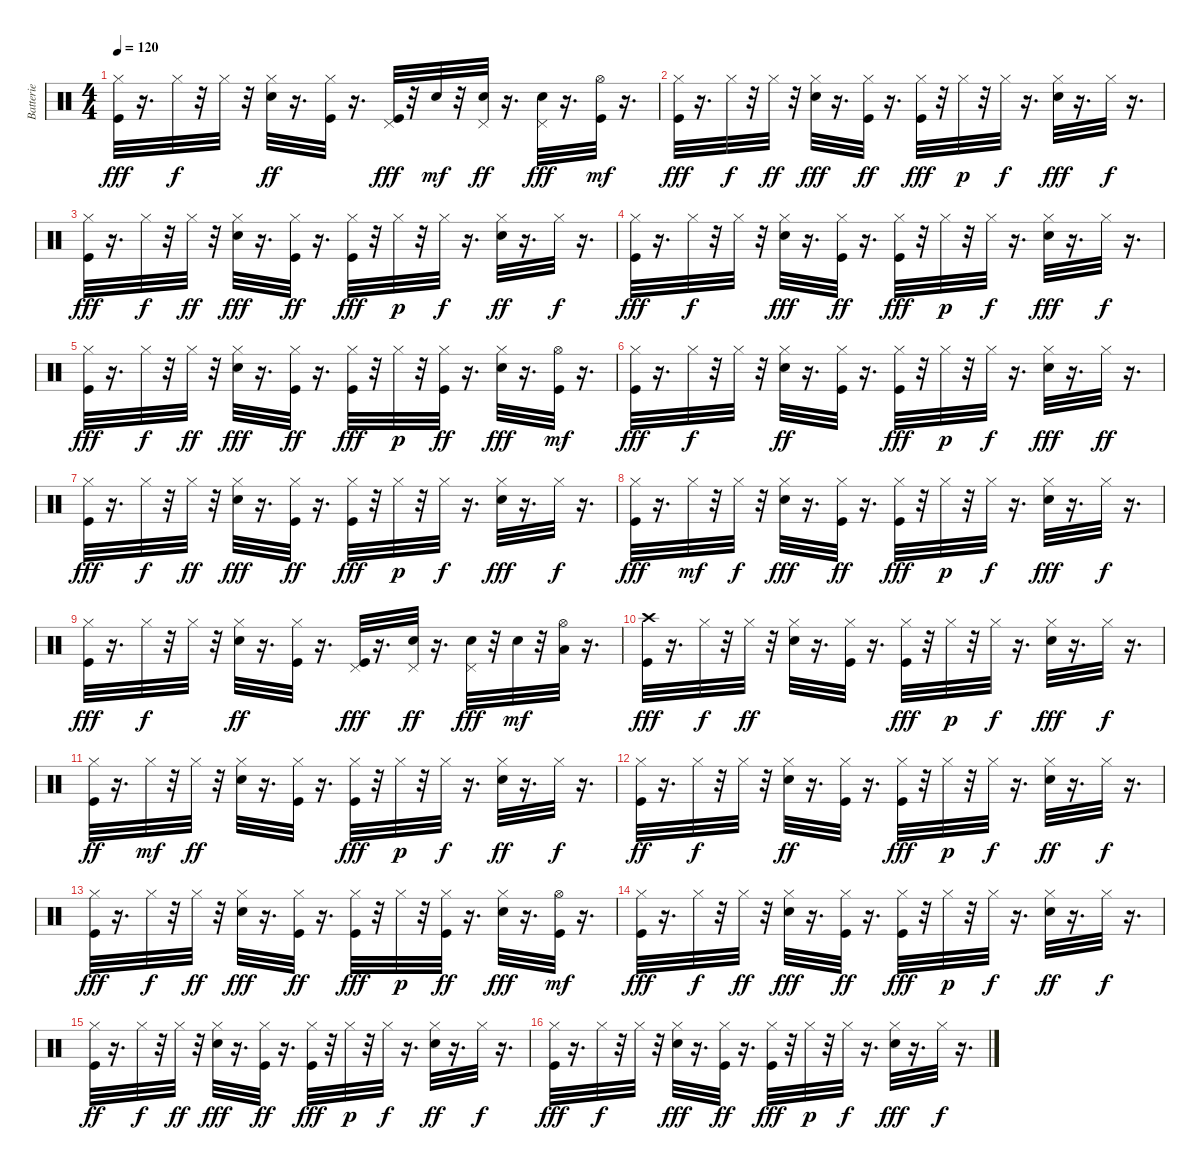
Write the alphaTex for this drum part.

\track ("Batterie" "Batterie") {instrument percussion}
\staff {score}
\articulation defaults
\ts (4 4)
\tempo 120
\clef neutral
\ks c
("Hi-Hat (closed)" "Kick (hit)").32{dy fff} r.16{d} "Hi-Hat (closed)".32{dy f} r.32 "Hi-Hat (closed)".32 r.32 ("Electric Snare (hit)" "Hi-Hat (closed)").32{dy ff} r.16{d} ("Hi-Hat (closed)" "Kick (hit)").32 r.16{d} ("Pedal Hi-Hat (hit)" "Kick (hit)").32{dy fff} r.32 "Electric Snare (hit)".32{dy mf} r.32 ("Electric Snare (hit)" "Pedal Hi-Hat (hit)").32{dy ff} r.16{d} ("Pedal Hi-Hat (hit)" "Electric Snare (hit)").32{dy fff} r.16{d} ("Kick (hit)" "Hi-Hat (open)").32{dy mf} r.16{d} |
("Hi-Hat (closed)" "Kick (hit)").32{dy fff} r.16{d} "Hi-Hat (closed)".32{dy f} r.32 "Hi-Hat (closed)".32{dy ff} r.32 ("Hi-Hat (closed)" "Electric Snare (hit)").32{dy fff} r.16{d} ("Kick (hit)" "Hi-Hat (closed)").32{dy ff} r.16{d} ("Hi-Hat (closed)" "Kick (hit)").32{dy fff} r.32 "Hi-Hat (closed)".32{dy p} r.32 "Hi-Hat (closed)".32{dy f} r.16{d} ("Hi-Hat (closed)" "Electric Snare (hit)").32{dy fff} r.16{d} "Hi-Hat (closed)".32{dy f} r.16{d} |
("Hi-Hat (closed)" "Kick (hit)").32{dy fff} r.16{d} "Hi-Hat (closed)".32{dy f} r.32 "Hi-Hat (closed)".32{dy ff} r.32 ("Hi-Hat (closed)" "Electric Snare (hit)").32{dy fff} r.16{d} ("Hi-Hat (closed)" "Kick (hit)").32{dy ff} r.16{d} ("Hi-Hat (closed)" "Kick (hit)").32{dy fff} r.32 "Hi-Hat (closed)".32{dy p} r.32 "Hi-Hat (closed)".32{dy f} r.16{d} ("Electric Snare (hit)" "Hi-Hat (closed)").32{dy ff} r.16{d} "Hi-Hat (closed)".32{dy f} r.16{d} |
("Hi-Hat (closed)" "Kick (hit)").32{dy fff} r.16{d} "Hi-Hat (closed)".32{dy f} r.32 "Hi-Hat (closed)".32 r.32 ("Hi-Hat (closed)" "Electric Snare (hit)").32{dy fff} r.16{d} ("Hi-Hat (closed)" "Kick (hit)").32{dy ff} r.16{d} ("Hi-Hat (closed)" "Kick (hit)").32{dy fff} r.32 "Hi-Hat (closed)".32{dy p} r.32 "Hi-Hat (closed)".32{dy f} r.16{d} ("Hi-Hat (closed)" "Electric Snare (hit)").32{dy fff} r.16{d} "Hi-Hat (closed)".32{dy f} r.16{d} |
("Hi-Hat (closed)" "Kick (hit)").32{dy fff} r.16{d} "Hi-Hat (closed)".32{dy f} r.32 "Hi-Hat (closed)".32{dy ff} r.32 ("Hi-Hat (closed)" "Electric Snare (hit)").32{dy fff} r.16{d} ("Hi-Hat (closed)" "Kick (hit)").32{dy ff} r.16{d} ("Kick (hit)" "Hi-Hat (closed)").32{dy fff} r.32 "Hi-Hat (closed)".32{dy p} r.32 ("Hi-Hat (closed)" "Kick (hit)").32{dy ff} r.16{d} ("Hi-Hat (closed)" "Electric Snare (hit)").32{dy fff} r.16{d} ("Kick (hit)" "Hi-Hat (open)").32{dy mf} r.16{d} |
("Hi-Hat (closed)" "Kick (hit)").32{dy fff} r.16{d} "Hi-Hat (closed)".32{dy f} r.32 "Hi-Hat (closed)".32 r.32 ("Electric Snare (hit)" "Hi-Hat (closed)").32{dy ff} r.16{d} ("Hi-Hat (closed)" "Kick (hit)").32 r.16{d} ("Hi-Hat (closed)" "Kick (hit)").32{dy fff} r.32 "Hi-Hat (closed)".32{dy p} r.32 "Hi-Hat (closed)".32{dy f} r.16{d} ("Hi-Hat (closed)" "Electric Snare (hit)").32{dy fff} r.16{d} "Hi-Hat (closed)".32{dy ff} r.16{d} |
("Hi-Hat (closed)" "Kick (hit)").32{dy fff} r.16{d} "Hi-Hat (closed)".32{dy f} r.32 "Hi-Hat (closed)".32{dy ff} r.32 ("Hi-Hat (closed)" "Electric Snare (hit)").32{dy fff} r.16{d} ("Hi-Hat (closed)" "Kick (hit)").32{dy ff} r.16{d} ("Kick (hit)" "Hi-Hat (closed)").32{dy fff} r.32 "Hi-Hat (closed)".32{dy p} r.32 "Hi-Hat (closed)".32{dy f} r.16{d} ("Hi-Hat (closed)" "Electric Snare (hit)").32{dy fff} r.16{d} "Hi-Hat (closed)".32{dy f} r.16{d} |
("Hi-Hat (closed)" "Kick (hit)").32{dy fff} r.16{d} "Hi-Hat (closed)".32{dy mf} r.32 "Hi-Hat (closed)".32{dy f} r.32 ("Hi-Hat (closed)" "Electric Snare (hit)").32{dy fff} r.16{d} ("Kick (hit)" "Hi-Hat (closed)").32{dy ff} r.16{d} ("Kick (hit)" "Hi-Hat (closed)").32{dy fff} r.32 "Hi-Hat (closed)".32{dy p} r.32 "Hi-Hat (closed)".32{dy f} r.16{d} ("Hi-Hat (closed)" "Electric Snare (hit)").32{dy fff} r.16{d} "Hi-Hat (closed)".32{dy f} r.16{d} |
("Hi-Hat (closed)" "Kick (hit)").32{dy fff} r.16{d} "Hi-Hat (closed)".32{dy f} r.32 "Hi-Hat (closed)".32 r.32 ("Electric Snare (hit)" "Hi-Hat (closed)").32{dy ff} r.16{d} ("Hi-Hat (closed)" "Kick (hit)").32 r.16{d} ("Pedal Hi-Hat (hit)" "Kick (hit)").32{dy fff} r.16{d} ("Pedal Hi-Hat (hit)" "Electric Snare (hit)").32{dy ff} r.16{d} ("Pedal Hi-Hat (hit)" "Electric Snare (hit)").32{dy fff} r.32 "Electric Snare (hit)".32{dy mf} r.32 ("Hi-Hat (open)" "Low Tom (hit)").32 r.16{d} |
("Crash high (hit)" "Kick (hit)").32{dy fff} r.16{d} "Hi-Hat (closed)".32{dy f} r.32 "Hi-Hat (closed)".32{dy ff} r.32 ("Electric Snare (hit)" "Hi-Hat (closed)").32 r.16{d} ("Kick (hit)" "Hi-Hat (closed)").32 r.16{d} ("Hi-Hat (closed)" "Kick (hit)").32{dy fff} r.32 "Hi-Hat (closed)".32{dy p} r.32 "Hi-Hat (closed)".32{dy f} r.16{d} ("Hi-Hat (closed)" "Electric Snare (hit)").32{dy fff} r.16{d} "Hi-Hat (closed)".32{dy f} r.16{d} |
("Kick (hit)" "Hi-Hat (closed)").32{dy ff} r.16{d} "Hi-Hat (closed)".32{dy mf} r.32 "Hi-Hat (closed)".32{dy ff} r.32 ("Electric Snare (hit)" "Hi-Hat (closed)").32 r.16{d} ("Kick (hit)" "Hi-Hat (closed)").32 r.16{d} ("Hi-Hat (closed)" "Kick (hit)").32{dy fff} r.32 "Hi-Hat (closed)".32{dy p} r.32 "Hi-Hat (closed)".32{dy f} r.16{d} ("Electric Snare (hit)" "Hi-Hat (closed)").32{dy ff} r.16{d} "Hi-Hat (closed)".32{dy f} r.16{d} |
("Kick (hit)" "Hi-Hat (closed)").32{dy ff} r.16{d} "Hi-Hat (closed)".32{dy f} r.32 "Hi-Hat (closed)".32 r.32 ("Electric Snare (hit)" "Hi-Hat (closed)").32{dy ff} r.16{d} ("Kick (hit)" "Hi-Hat (closed)").32 r.16{d} ("Kick (hit)" "Hi-Hat (closed)").32{dy fff} r.32 "Hi-Hat (closed)".32{dy p} r.32 "Hi-Hat (closed)".32{dy f} r.16{d} ("Electric Snare (hit)" "Hi-Hat (closed)").32{dy ff} r.16{d} "Hi-Hat (closed)".32{dy f} r.16{d} |
("Hi-Hat (closed)" "Kick (hit)").32{dy fff} r.16{d} "Hi-Hat (closed)".32{dy f} r.32 "Hi-Hat (closed)".32{dy ff} r.32 ("Hi-Hat (closed)" "Electric Snare (hit)").32{dy fff} r.16{d} ("Kick (hit)" "Hi-Hat (closed)").32{dy ff} r.16{d} ("Hi-Hat (closed)" "Kick (hit)").32{dy fff} r.32 "Hi-Hat (closed)".32{dy p} r.32 ("Kick (hit)" "Hi-Hat (closed)").32{dy ff} r.16{d} ("Hi-Hat (closed)" "Electric Snare (hit)").32{dy fff} r.16{d} ("Kick (hit)" "Hi-Hat (open)").32{dy mf} r.16{d} |
("Hi-Hat (closed)" "Kick (hit)").32{dy fff} r.16{d} "Hi-Hat (closed)".32{dy f} r.32 "Hi-Hat (closed)".32{dy ff} r.32 ("Hi-Hat (closed)" "Electric Snare (hit)").32{dy fff} r.16{d} ("Hi-Hat (closed)" "Kick (hit)").32{dy ff} r.16{d} ("Hi-Hat (closed)" "Kick (hit)").32{dy fff} r.32 "Hi-Hat (closed)".32{dy p} r.32 "Hi-Hat (closed)".32{dy f} r.16{d} ("Electric Snare (hit)" "Hi-Hat (closed)").32{dy ff} r.16{d} "Hi-Hat (closed)".32{dy f} r.16{d} |
("Kick (hit)" "Hi-Hat (closed)").32{dy ff} r.16{d} "Hi-Hat (closed)".32{dy f} r.32 "Hi-Hat (closed)".32{dy ff} r.32 ("Hi-Hat (closed)" "Electric Snare (hit)").32{dy fff} r.16{d} ("Kick (hit)" "Hi-Hat (closed)").32{dy ff} r.16{d} ("Kick (hit)" "Hi-Hat (closed)").32{dy fff} r.32 "Hi-Hat (closed)".32{dy p} r.32 "Hi-Hat (closed)".32{dy f} r.16{d} ("Electric Snare (hit)" "Hi-Hat (closed)").32{dy ff} r.16{d} "Hi-Hat (closed)".32{dy f} r.16{d} |
("Hi-Hat (closed)" "Kick (hit)").32{dy fff} r.16{d} "Hi-Hat (closed)".32{dy f} r.32 "Hi-Hat (closed)".32 r.32 ("Hi-Hat (closed)" "Electric Snare (hit)").32{dy fff} r.16{d} ("Hi-Hat (closed)" "Kick (hit)").32{dy ff} r.16{d} ("Kick (hit)" "Hi-Hat (closed)").32{dy fff} r.32 "Hi-Hat (closed)".32{dy p} r.32 "Hi-Hat (closed)".32{dy f} r.16{d} ("Hi-Hat (closed)" "Electric Snare (hit)").32{dy fff} r.16{d} "Hi-Hat (closed)".32{dy f} r.16{d}
